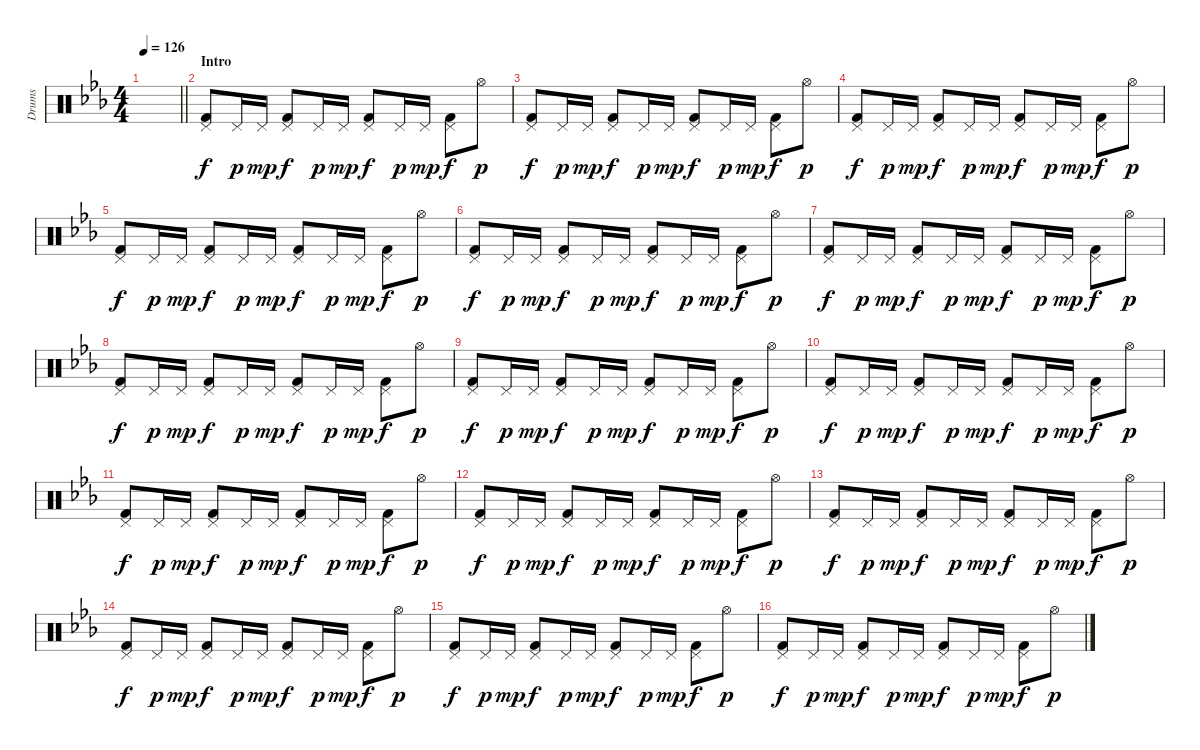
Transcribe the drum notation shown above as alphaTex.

\track ("Drums" "Drums") {instrument percussion}
\staff {score}
\articulation defaults
\ts (4 4)
\tempo 126
\clef neutral
\barLineRight lightlight
\ks eb
|
\section ("" "Intro")
("Pedal Hi-Hat (hit)" "Kick (hit) 2").8 "Pedal Hi-Hat (hit)".16{dy p} "Pedal Hi-Hat (hit)".16{dy mp} ("Pedal Hi-Hat (hit)" "Kick (hit) 2").8{dy f} "Pedal Hi-Hat (hit)".16{dy p} "Pedal Hi-Hat (hit)".16{dy mp} ("Pedal Hi-Hat (hit)" "Kick (hit) 2").8{dy f} "Pedal Hi-Hat (hit)".16{dy p} "Pedal Hi-Hat (hit)".16{dy mp} ("Pedal Hi-Hat (hit)" "Kick (hit) 2").8{dy f} "Hi-Hat (open)".8{dy p} |
("Pedal Hi-Hat (hit)" "Kick (hit) 2").8{dy f} "Pedal Hi-Hat (hit)".16{dy p} "Pedal Hi-Hat (hit)".16{dy mp} ("Pedal Hi-Hat (hit)" "Kick (hit) 2").8{dy f} "Pedal Hi-Hat (hit)".16{dy p} "Pedal Hi-Hat (hit)".16{dy mp} ("Pedal Hi-Hat (hit)" "Kick (hit) 2").8{dy f} "Pedal Hi-Hat (hit)".16{dy p} "Pedal Hi-Hat (hit)".16{dy mp} ("Pedal Hi-Hat (hit)" "Kick (hit) 2").8{dy f} "Hi-Hat (open)".8{dy p} |
("Pedal Hi-Hat (hit)" "Kick (hit) 2").8{dy f} "Pedal Hi-Hat (hit)".16{dy p} "Pedal Hi-Hat (hit)".16{dy mp} ("Pedal Hi-Hat (hit)" "Kick (hit) 2").8{dy f} "Pedal Hi-Hat (hit)".16{dy p} "Pedal Hi-Hat (hit)".16{dy mp} ("Pedal Hi-Hat (hit)" "Kick (hit) 2").8{dy f} "Pedal Hi-Hat (hit)".16{dy p} "Pedal Hi-Hat (hit)".16{dy mp} ("Pedal Hi-Hat (hit)" "Kick (hit) 2").8{dy f} "Hi-Hat (open)".8{dy p} |
("Pedal Hi-Hat (hit)" "Kick (hit) 2").8{dy f} "Pedal Hi-Hat (hit)".16{dy p} "Pedal Hi-Hat (hit)".16{dy mp} ("Pedal Hi-Hat (hit)" "Kick (hit) 2").8{dy f} "Pedal Hi-Hat (hit)".16{dy p} "Pedal Hi-Hat (hit)".16{dy mp} ("Pedal Hi-Hat (hit)" "Kick (hit) 2").8{dy f} "Pedal Hi-Hat (hit)".16{dy p} "Pedal Hi-Hat (hit)".16{dy mp} ("Pedal Hi-Hat (hit)" "Kick (hit) 2").8{dy f} "Hi-Hat (open)".8{dy p} |
("Pedal Hi-Hat (hit)" "Kick (hit) 2").8{dy f} "Pedal Hi-Hat (hit)".16{dy p} "Pedal Hi-Hat (hit)".16{dy mp} ("Pedal Hi-Hat (hit)" "Kick (hit) 2").8{dy f} "Pedal Hi-Hat (hit)".16{dy p} "Pedal Hi-Hat (hit)".16{dy mp} ("Pedal Hi-Hat (hit)" "Kick (hit) 2").8{dy f} "Pedal Hi-Hat (hit)".16{dy p} "Pedal Hi-Hat (hit)".16{dy mp} ("Pedal Hi-Hat (hit)" "Kick (hit) 2").8{dy f} "Hi-Hat (open)".8{dy p} |
("Pedal Hi-Hat (hit)" "Kick (hit) 2").8{dy f} "Pedal Hi-Hat (hit)".16{dy p} "Pedal Hi-Hat (hit)".16{dy mp} ("Pedal Hi-Hat (hit)" "Kick (hit) 2").8{dy f} "Pedal Hi-Hat (hit)".16{dy p} "Pedal Hi-Hat (hit)".16{dy mp} ("Pedal Hi-Hat (hit)" "Kick (hit) 2").8{dy f} "Pedal Hi-Hat (hit)".16{dy p} "Pedal Hi-Hat (hit)".16{dy mp} ("Pedal Hi-Hat (hit)" "Kick (hit) 2").8{dy f} "Hi-Hat (open)".8{dy p} |
("Pedal Hi-Hat (hit)" "Kick (hit) 2").8{dy f} "Pedal Hi-Hat (hit)".16{dy p} "Pedal Hi-Hat (hit)".16{dy mp} ("Pedal Hi-Hat (hit)" "Kick (hit) 2").8{dy f} "Pedal Hi-Hat (hit)".16{dy p} "Pedal Hi-Hat (hit)".16{dy mp} ("Pedal Hi-Hat (hit)" "Kick (hit) 2").8{dy f} "Pedal Hi-Hat (hit)".16{dy p} "Pedal Hi-Hat (hit)".16{dy mp} ("Pedal Hi-Hat (hit)" "Kick (hit) 2").8{dy f} "Hi-Hat (open)".8{dy p} |
("Pedal Hi-Hat (hit)" "Kick (hit) 2").8{dy f} "Pedal Hi-Hat (hit)".16{dy p} "Pedal Hi-Hat (hit)".16{dy mp} ("Pedal Hi-Hat (hit)" "Kick (hit) 2").8{dy f} "Pedal Hi-Hat (hit)".16{dy p} "Pedal Hi-Hat (hit)".16{dy mp} ("Pedal Hi-Hat (hit)" "Kick (hit) 2").8{dy f} "Pedal Hi-Hat (hit)".16{dy p} "Pedal Hi-Hat (hit)".16{dy mp} ("Pedal Hi-Hat (hit)" "Kick (hit) 2").8{dy f} "Hi-Hat (open)".8{dy p} |
("Pedal Hi-Hat (hit)" "Kick (hit) 2").8{dy f} "Pedal Hi-Hat (hit)".16{dy p} "Pedal Hi-Hat (hit)".16{dy mp} ("Pedal Hi-Hat (hit)" "Kick (hit) 2").8{dy f} "Pedal Hi-Hat (hit)".16{dy p} "Pedal Hi-Hat (hit)".16{dy mp} ("Pedal Hi-Hat (hit)" "Kick (hit) 2").8{dy f} "Pedal Hi-Hat (hit)".16{dy p} "Pedal Hi-Hat (hit)".16{dy mp} ("Pedal Hi-Hat (hit)" "Kick (hit) 2").8{dy f} "Hi-Hat (open)".8{dy p} |
("Pedal Hi-Hat (hit)" "Kick (hit) 2").8{dy f} "Pedal Hi-Hat (hit)".16{dy p} "Pedal Hi-Hat (hit)".16{dy mp} ("Pedal Hi-Hat (hit)" "Kick (hit) 2").8{dy f} "Pedal Hi-Hat (hit)".16{dy p} "Pedal Hi-Hat (hit)".16{dy mp} ("Pedal Hi-Hat (hit)" "Kick (hit) 2").8{dy f} "Pedal Hi-Hat (hit)".16{dy p} "Pedal Hi-Hat (hit)".16{dy mp} ("Pedal Hi-Hat (hit)" "Kick (hit) 2").8{dy f} "Hi-Hat (open)".8{dy p} |
("Pedal Hi-Hat (hit)" "Kick (hit) 2").8{dy f} "Pedal Hi-Hat (hit)".16{dy p} "Pedal Hi-Hat (hit)".16{dy mp} ("Pedal Hi-Hat (hit)" "Kick (hit) 2").8{dy f} "Pedal Hi-Hat (hit)".16{dy p} "Pedal Hi-Hat (hit)".16{dy mp} ("Pedal Hi-Hat (hit)" "Kick (hit) 2").8{dy f} "Pedal Hi-Hat (hit)".16{dy p} "Pedal Hi-Hat (hit)".16{dy mp} ("Pedal Hi-Hat (hit)" "Kick (hit) 2").8{dy f} "Hi-Hat (open)".8{dy p} |
("Pedal Hi-Hat (hit)" "Kick (hit) 2").8{dy f} "Pedal Hi-Hat (hit)".16{dy p} "Pedal Hi-Hat (hit)".16{dy mp} ("Pedal Hi-Hat (hit)" "Kick (hit) 2").8{dy f} "Pedal Hi-Hat (hit)".16{dy p} "Pedal Hi-Hat (hit)".16{dy mp} ("Pedal Hi-Hat (hit)" "Kick (hit) 2").8{dy f} "Pedal Hi-Hat (hit)".16{dy p} "Pedal Hi-Hat (hit)".16{dy mp} ("Pedal Hi-Hat (hit)" "Kick (hit) 2").8{dy f} "Hi-Hat (open)".8{dy p} |
("Pedal Hi-Hat (hit)" "Kick (hit) 2").8{dy f} "Pedal Hi-Hat (hit)".16{dy p} "Pedal Hi-Hat (hit)".16{dy mp} ("Pedal Hi-Hat (hit)" "Kick (hit) 2").8{dy f} "Pedal Hi-Hat (hit)".16{dy p} "Pedal Hi-Hat (hit)".16{dy mp} ("Pedal Hi-Hat (hit)" "Kick (hit) 2").8{dy f} "Pedal Hi-Hat (hit)".16{dy p} "Pedal Hi-Hat (hit)".16{dy mp} ("Pedal Hi-Hat (hit)" "Kick (hit) 2").8{dy f} "Hi-Hat (open)".8{dy p} |
("Pedal Hi-Hat (hit)" "Kick (hit) 2").8{dy f} "Pedal Hi-Hat (hit)".16{dy p} "Pedal Hi-Hat (hit)".16{dy mp} ("Pedal Hi-Hat (hit)" "Kick (hit) 2").8{dy f} "Pedal Hi-Hat (hit)".16{dy p} "Pedal Hi-Hat (hit)".16{dy mp} ("Pedal Hi-Hat (hit)" "Kick (hit) 2").8{dy f} "Pedal Hi-Hat (hit)".16{dy p} "Pedal Hi-Hat (hit)".16{dy mp} ("Pedal Hi-Hat (hit)" "Kick (hit) 2").8{dy f} "Hi-Hat (open)".8{dy p} |
("Pedal Hi-Hat (hit)" "Kick (hit) 2").8{dy f} "Pedal Hi-Hat (hit)".16{dy p} "Pedal Hi-Hat (hit)".16{dy mp} ("Pedal Hi-Hat (hit)" "Kick (hit) 2").8{dy f} "Pedal Hi-Hat (hit)".16{dy p} "Pedal Hi-Hat (hit)".16{dy mp} ("Pedal Hi-Hat (hit)" "Kick (hit) 2").8{dy f} "Pedal Hi-Hat (hit)".16{dy p} "Pedal Hi-Hat (hit)".16{dy mp} ("Pedal Hi-Hat (hit)" "Kick (hit) 2").8{dy f} "Hi-Hat (open)".8{dy p}
